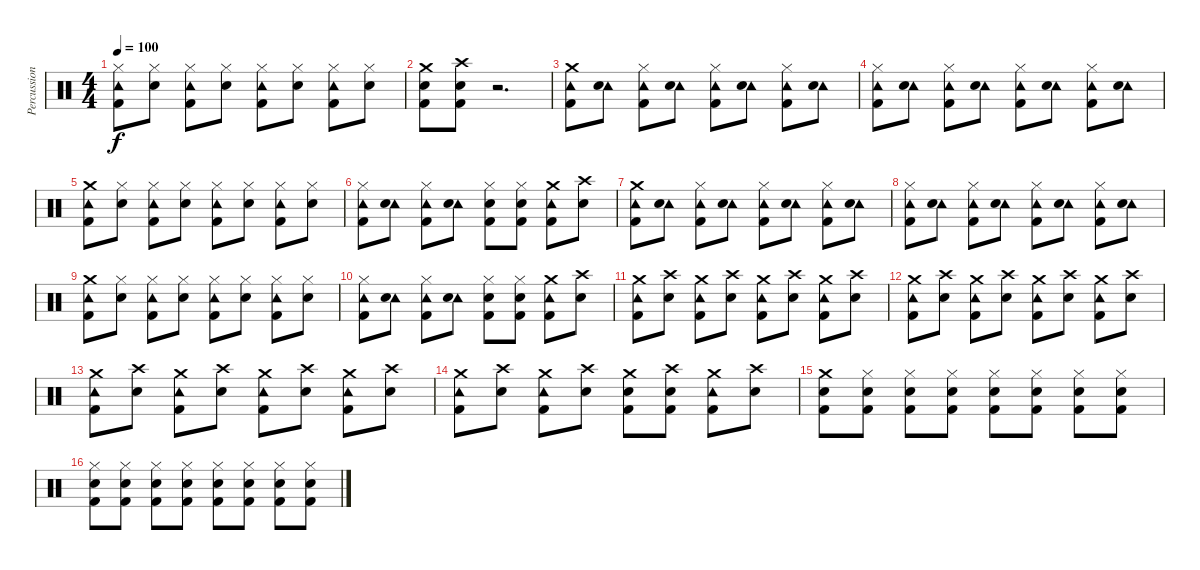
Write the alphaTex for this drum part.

\track ("Percussion" "Percussion") {instrument percussion}
\staff {score}
\articulation defaults
\ts (4 4)
\tempo 100
\clef neutral
\ks c
("Hi-Hat (closed)" "Tambourine (hit)" "Kick (hit) 2").8{dy f} ("Hi-Hat (closed)" "Electric Snare (hit)").8 ("Hi-Hat (closed)" "Tambourine (hit)" "Kick (hit) 2").8 ("Hi-Hat (closed)" "Electric Snare (hit)").8 ("Hi-Hat (closed)" "Tambourine (hit)" "Kick (hit) 2").8 ("Hi-Hat (closed)" "Electric Snare (hit)").8 ("Hi-Hat (closed)" "Tambourine (hit)" "Kick (hit) 2").8 ("Hi-Hat (closed)" "Electric Snare (hit)").8 |
("Electric Snare (hit)" "Crash medium (hit)" "Kick (hit) 2").8 ("Electric Snare (hit)" "Crash high (hit)" "Kick (hit) 2").8 r.2{d} |
("Tambourine (hit)" "Crash medium (hit)" "Kick (hit) 2").8 ("Tambourine (hit)" "Electric Snare (hit)").8 ("Hi-Hat (closed)" "Tambourine (hit)" "Kick (hit) 2").8 ("Tambourine (hit)" "Electric Snare (hit)").8 ("Hi-Hat (closed)" "Tambourine (hit)" "Kick (hit) 2").8 ("Tambourine (hit)" "Electric Snare (hit)").8 ("Hi-Hat (closed)" "Tambourine (hit)" "Kick (hit) 2").8 ("Tambourine (hit)" "Electric Snare (hit)").8 |
("Hi-Hat (closed)" "Tambourine (hit)" "Kick (hit) 2").8 ("Tambourine (hit)" "Electric Snare (hit)").8 ("Hi-Hat (closed)" "Tambourine (hit)" "Kick (hit) 2").8 ("Tambourine (hit)" "Electric Snare (hit)").8 ("Hi-Hat (closed)" "Tambourine (hit)" "Kick (hit) 2").8 ("Tambourine (hit)" "Electric Snare (hit)").8 ("Hi-Hat (closed)" "Tambourine (hit)" "Kick (hit) 2").8 ("Tambourine (hit)" "Electric Snare (hit)").8 |
("Tambourine (hit)" "Crash medium (hit)" "Kick (hit) 2").8 ("Hi-Hat (closed)" "Electric Snare (hit)").8 ("Hi-Hat (closed)" "Tambourine (hit)" "Kick (hit) 2").8 ("Hi-Hat (closed)" "Electric Snare (hit)").8 ("Hi-Hat (closed)" "Tambourine (hit)" "Kick (hit) 2").8 ("Hi-Hat (closed)" "Electric Snare (hit)").8 ("Hi-Hat (closed)" "Tambourine (hit)" "Kick (hit) 2").8 ("Hi-Hat (closed)" "Electric Snare (hit)").8 |
("Hi-Hat (closed)" "Tambourine (hit)" "Kick (hit) 2").8 ("Tambourine (hit)" "Electric Snare (hit)").8 ("Hi-Hat (closed)" "Tambourine (hit)" "Kick (hit) 2").8 ("Tambourine (hit)" "Electric Snare (hit)").8 ("Hi-Hat (closed)" "Electric Snare (hit)" "Kick (hit) 2").8 ("Hi-Hat (closed)" "Electric Snare (hit)" "Kick (hit) 2").8 ("Tambourine (hit)" "Crash medium (hit)" "Kick (hit) 2").8 ("Electric Snare (hit)" "Crash high (hit)").8 |
("Tambourine (hit)" "Crash medium (hit)" "Kick (hit) 2").8 ("Tambourine (hit)" "Electric Snare (hit)").8 ("Hi-Hat (closed)" "Tambourine (hit)" "Kick (hit) 2").8 ("Tambourine (hit)" "Electric Snare (hit)").8 ("Hi-Hat (closed)" "Tambourine (hit)" "Kick (hit) 2").8 ("Tambourine (hit)" "Electric Snare (hit)").8 ("Hi-Hat (closed)" "Tambourine (hit)" "Kick (hit) 2").8 ("Tambourine (hit)" "Electric Snare (hit)").8 |
("Hi-Hat (closed)" "Tambourine (hit)" "Kick (hit) 2").8 ("Tambourine (hit)" "Electric Snare (hit)").8 ("Hi-Hat (closed)" "Tambourine (hit)" "Kick (hit) 2").8 ("Tambourine (hit)" "Electric Snare (hit)").8 ("Hi-Hat (closed)" "Tambourine (hit)" "Kick (hit) 2").8 ("Tambourine (hit)" "Electric Snare (hit)").8 ("Hi-Hat (closed)" "Tambourine (hit)" "Kick (hit) 2").8 ("Tambourine (hit)" "Electric Snare (hit)").8 |
("Tambourine (hit)" "Crash medium (hit)" "Kick (hit) 2").8 ("Hi-Hat (closed)" "Electric Snare (hit)").8 ("Hi-Hat (closed)" "Tambourine (hit)" "Kick (hit) 2").8 ("Hi-Hat (closed)" "Electric Snare (hit)").8 ("Hi-Hat (closed)" "Tambourine (hit)" "Kick (hit) 2").8 ("Hi-Hat (closed)" "Electric Snare (hit)").8 ("Hi-Hat (closed)" "Tambourine (hit)" "Kick (hit) 2").8 ("Hi-Hat (closed)" "Electric Snare (hit)").8 |
("Hi-Hat (closed)" "Tambourine (hit)" "Kick (hit) 2").8 ("Tambourine (hit)" "Electric Snare (hit)").8 ("Hi-Hat (closed)" "Tambourine (hit)" "Kick (hit) 2").8 ("Tambourine (hit)" "Electric Snare (hit)").8 ("Hi-Hat (closed)" "Electric Snare (hit)" "Kick (hit) 2").8 ("Hi-Hat (closed)" "Electric Snare (hit)" "Kick (hit) 2").8 ("Tambourine (hit)" "Crash medium (hit)" "Kick (hit) 2").8 ("Electric Snare (hit)" "Crash high (hit)").8 |
("Tambourine (hit)" "Crash medium (hit)" "Kick (hit) 2").8 ("Electric Snare (hit)" "Crash high (hit)").8 ("Tambourine (hit)" "Crash medium (hit)" "Kick (hit) 2").8 ("Electric Snare (hit)" "Crash high (hit)").8 ("Tambourine (hit)" "Crash medium (hit)" "Kick (hit) 2").8 ("Electric Snare (hit)" "Crash high (hit)").8 ("Tambourine (hit)" "Crash medium (hit)" "Kick (hit) 2").8 ("Electric Snare (hit)" "Crash high (hit)").8 |
("Tambourine (hit)" "Crash medium (hit)" "Kick (hit) 2").8 ("Electric Snare (hit)" "Crash high (hit)").8 ("Tambourine (hit)" "Crash medium (hit)" "Kick (hit) 2").8 ("Electric Snare (hit)" "Crash high (hit)").8 ("Tambourine (hit)" "Crash medium (hit)" "Kick (hit) 2").8 ("Electric Snare (hit)" "Crash high (hit)").8 ("Tambourine (hit)" "Crash medium (hit)" "Kick (hit) 2").8 ("Electric Snare (hit)" "Crash high (hit)").8 |
("Tambourine (hit)" "Crash medium (hit)" "Kick (hit) 2").8 ("Electric Snare (hit)" "Crash high (hit)").8 ("Tambourine (hit)" "Crash medium (hit)" "Kick (hit) 2").8 ("Electric Snare (hit)" "Crash high (hit)").8 ("Tambourine (hit)" "Crash medium (hit)" "Kick (hit) 2").8 ("Electric Snare (hit)" "Crash high (hit)").8 ("Tambourine (hit)" "Crash medium (hit)" "Kick (hit) 2").8 ("Electric Snare (hit)" "Crash high (hit)").8 |
("Tambourine (hit)" "Crash medium (hit)" "Kick (hit) 2").8 ("Electric Snare (hit)" "Crash high (hit)").8 ("Tambourine (hit)" "Crash medium (hit)" "Kick (hit) 2").8 ("Electric Snare (hit)" "Crash high (hit)").8 ("Electric Snare (hit)" "Crash medium (hit)" "Kick (hit) 2").8 ("Electric Snare (hit)" "Crash high (hit)" "Kick (hit) 2").8 ("Tambourine (hit)" "Crash medium (hit)" "Kick (hit) 2").8 ("Electric Snare (hit)" "Crash high (hit)").8 |
("Electric Snare (hit)" "Crash medium (hit)" "Kick (hit) 2").8{volume 16} ("Hi-Hat (closed)" "Electric Snare (hit)" "Kick (hit) 2").8 ("Hi-Hat (closed)" "Electric Snare (hit)" "Kick (hit) 2").8 ("Hi-Hat (closed)" "Electric Snare (hit)" "Kick (hit) 2").8 ("Hi-Hat (closed)" "Electric Snare (hit)" "Kick (hit) 2").8 ("Hi-Hat (closed)" "Electric Snare (hit)" "Kick (hit) 2").8 ("Hi-Hat (closed)" "Electric Snare (hit)" "Kick (hit) 2").8 ("Hi-Hat (closed)" "Electric Snare (hit)" "Kick (hit) 2").8 |
("Hi-Hat (closed)" "Electric Snare (hit)" "Kick (hit) 2").8 ("Hi-Hat (closed)" "Electric Snare (hit)" "Kick (hit) 2").8 ("Hi-Hat (closed)" "Electric Snare (hit)" "Kick (hit) 2").8 ("Hi-Hat (closed)" "Electric Snare (hit)" "Kick (hit) 2").8 ("Hi-Hat (closed)" "Electric Snare (hit)" "Kick (hit) 2").8 ("Hi-Hat (closed)" "Electric Snare (hit)" "Kick (hit) 2").8 ("Hi-Hat (closed)" "Electric Snare (hit)" "Kick (hit) 2").8 ("Hi-Hat (closed)" "Electric Snare (hit)" "Kick (hit) 2").8
